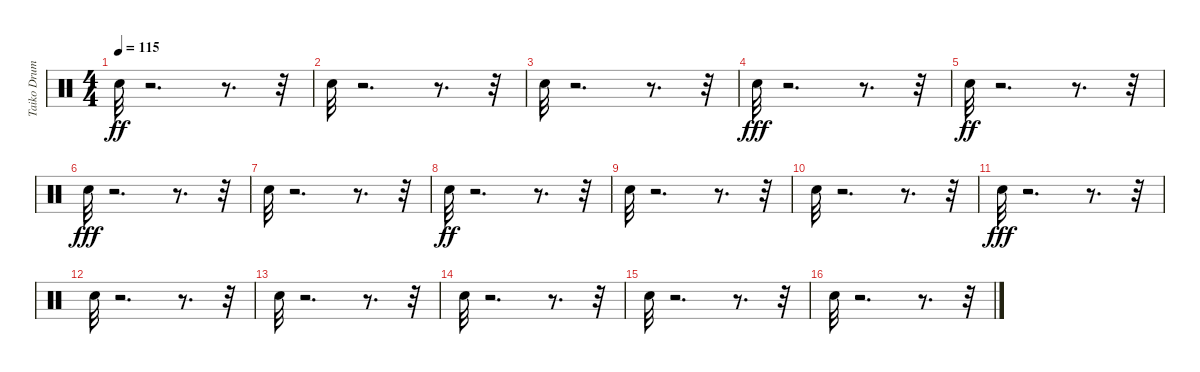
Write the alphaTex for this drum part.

\track ("Taiko Drums" "Taiko Drum") {instrument percussion}
\staff {score}
\articulation defaults
\ts (4 4)
\tempo 115
\clef neutral
\ks c "Snare (hit)".32{dy ff}
r.2{d} r.8{d} r.32 |
"Snare (hit)".32 r.2{d} r.8{d} r.32 |
"Snare (hit)".32 r.2{d} r.8{d} r.32 |
"Snare (hit)".32{dy fff} r.2{d} r.8{d} r.32 |
"Snare (hit)".32{dy ff} r.2{d} r.8{d} r.32 |
"Snare (hit)".32{dy fff} r.2{d} r.8{d} r.32 |
"Snare (hit)".32 r.2{d} r.8{d} r.32 |
"Snare (hit)".32{dy ff} r.2{d} r.8{d} r.32 |
"Snare (hit)".32 r.2{d} r.8{d} r.32 |
"Snare (hit)".32 r.2{d} r.8{d} r.32 |
"Snare (hit)".32{dy fff} r.2{d} r.8{d} r.32 |
"Snare (hit)".32 r.2{d} r.8{d} r.32 |
"Snare (hit)".32 r.2{d} r.8{d} r.32 |
"Snare (hit)".32 r.2{d} r.8{d} r.32 |
"Snare (hit)".32 r.2{d} r.8{d} r.32 |
"Snare (hit)".32 r.2{d} r.8{d} r.32
